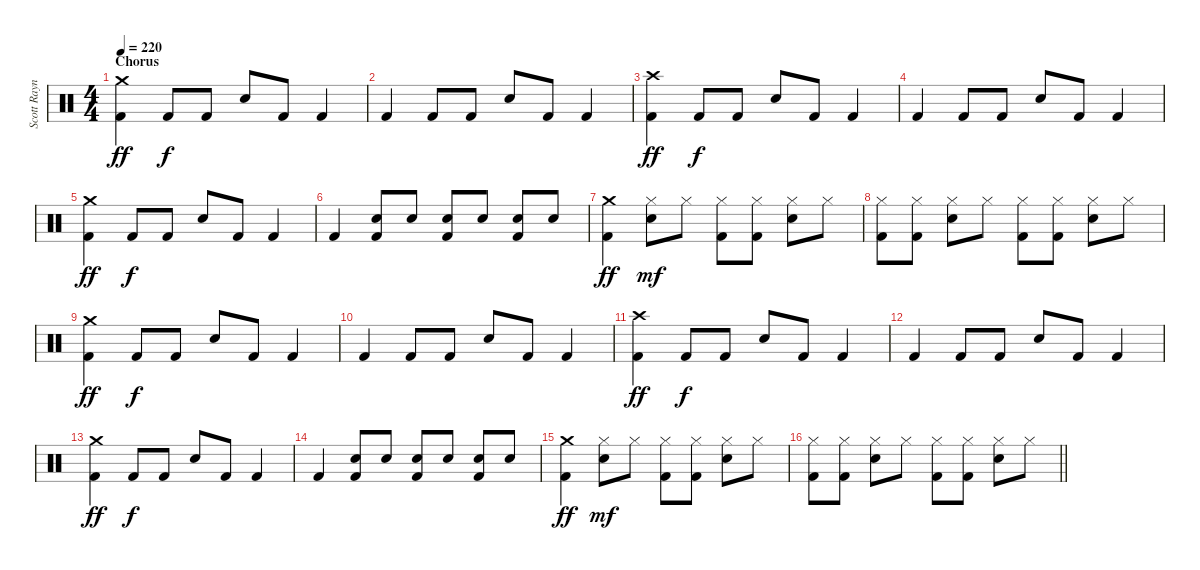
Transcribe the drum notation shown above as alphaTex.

\track ("Scott Raynor - Drums" "Scott Rayn") {instrument percussion}
\staff {score}
\articulation defaults
\ts (4 4)
\section ("" "Chorus")
\tempo 220
\clef neutral
\ks c
("Crash medium (hit)" "Kick (hit) 2").4{dy ff} "Kick (hit) 2".8{dy f} "Kick (hit) 2".8 "Electric Snare (hit)".8 "Kick (hit) 2".8 "Kick (hit) 2".4 |
"Kick (hit) 2".4 "Kick (hit) 2".8 "Kick (hit) 2".8 "Electric Snare (hit)".8 "Kick (hit) 2".8 "Kick (hit) 2".4 |
("Crash high (hit)" "Kick (hit) 2").4{dy ff} "Kick (hit) 2".8{dy f} "Kick (hit) 2".8 "Electric Snare (hit)".8 "Kick (hit) 2".8 "Kick (hit) 2".4 |
"Kick (hit) 2".4 "Kick (hit) 2".8 "Kick (hit) 2".8 "Electric Snare (hit)".8 "Kick (hit) 2".8 "Kick (hit) 2".4 |
("Crash medium (hit)" "Kick (hit) 2").4{dy ff} "Kick (hit) 2".8{dy f} "Kick (hit) 2".8 "Electric Snare (hit)".8 "Kick (hit) 2".8 "Kick (hit) 2".4 |
"Kick (hit) 2".4 ("Electric Snare (hit)" "Kick (hit) 2").8 "Electric Snare (hit)".8 ("Electric Snare (hit)" "Kick (hit) 2").8 "Electric Snare (hit)".8 ("Electric Snare (hit)" "Kick (hit) 2").8 "Electric Snare (hit)".8 |
("Crash medium (hit)" "Kick (hit) 2").4{dy ff} ("Hi-Hat (closed)" "Electric Snare (hit)").8{dy mf} "Hi-Hat (closed)".8 ("Hi-Hat (closed)" "Kick (hit) 2").8 ("Hi-Hat (closed)" "Kick (hit) 2").8 ("Hi-Hat (closed)" "Electric Snare (hit)").8 "Hi-Hat (closed)".8 |
("Hi-Hat (closed)" "Kick (hit) 2").8 ("Hi-Hat (closed)" "Kick (hit) 2").8 ("Hi-Hat (closed)" "Electric Snare (hit)").8 "Hi-Hat (closed)".8 ("Hi-Hat (closed)" "Kick (hit) 2").8 ("Hi-Hat (closed)" "Kick (hit) 2").8 ("Hi-Hat (closed)" "Electric Snare (hit)").8 "Hi-Hat (closed)".8 |
("Crash medium (hit)" "Kick (hit) 2").4{dy ff} "Kick (hit) 2".8{dy f} "Kick (hit) 2".8 "Electric Snare (hit)".8 "Kick (hit) 2".8 "Kick (hit) 2".4 |
"Kick (hit) 2".4 "Kick (hit) 2".8 "Kick (hit) 2".8 "Electric Snare (hit)".8 "Kick (hit) 2".8 "Kick (hit) 2".4 |
("Crash high (hit)" "Kick (hit) 2").4{dy ff} "Kick (hit) 2".8{dy f} "Kick (hit) 2".8 "Electric Snare (hit)".8 "Kick (hit) 2".8 "Kick (hit) 2".4 |
"Kick (hit) 2".4 "Kick (hit) 2".8 "Kick (hit) 2".8 "Electric Snare (hit)".8 "Kick (hit) 2".8 "Kick (hit) 2".4 |
("Crash medium (hit)" "Kick (hit) 2").4{dy ff} "Kick (hit) 2".8{dy f} "Kick (hit) 2".8 "Electric Snare (hit)".8 "Kick (hit) 2".8 "Kick (hit) 2".4 |
"Kick (hit) 2".4 ("Electric Snare (hit)" "Kick (hit) 2").8 "Electric Snare (hit)".8 ("Electric Snare (hit)" "Kick (hit) 2").8 "Electric Snare (hit)".8 ("Electric Snare (hit)" "Kick (hit) 2").8 "Electric Snare (hit)".8 |
("Crash medium (hit)" "Kick (hit) 2").4{dy ff} ("Hi-Hat (closed)" "Electric Snare (hit)").8{dy mf} "Hi-Hat (closed)".8 ("Hi-Hat (closed)" "Kick (hit) 2").8 ("Hi-Hat (closed)" "Kick (hit) 2").8 ("Hi-Hat (closed)" "Electric Snare (hit)").8 "Hi-Hat (closed)".8 |
\barLineRight lightlight
("Hi-Hat (closed)" "Kick (hit) 2").8 ("Hi-Hat (closed)" "Kick (hit) 2").8 ("Hi-Hat (closed)" "Electric Snare (hit)").8 "Hi-Hat (closed)".8 ("Hi-Hat (closed)" "Kick (hit) 2").8 ("Hi-Hat (closed)" "Kick (hit) 2").8 ("Hi-Hat (closed)" "Electric Snare (hit)").8 "Hi-Hat (closed)".8
